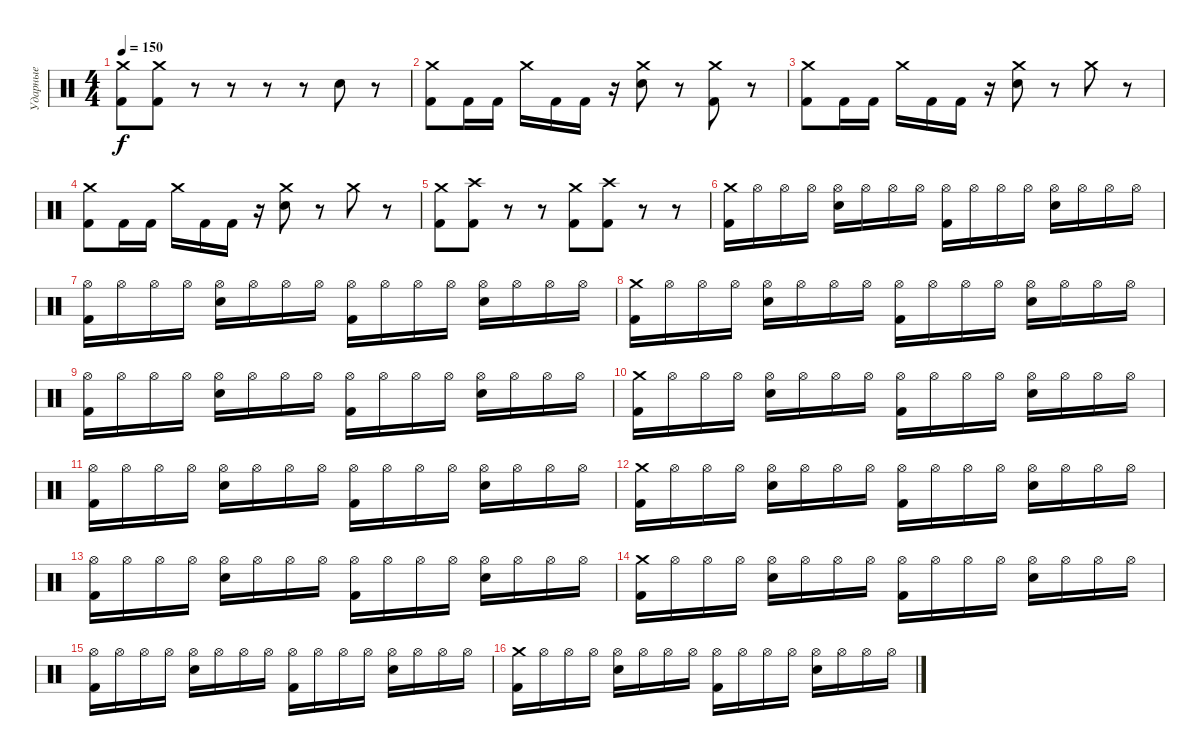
\track ("Ударные" "Ударные") {instrument percussion}
\staff {score}
\articulation defaults
\ts (4 4)
\tempo 150
\clef neutral
\ks c
("Crash medium (hit)" "Kick (hit) 2").8{dy f} ("Crash medium (hit)" "Kick (hit) 2").8 r.8 r.8 r.8 r.8 "Electric Snare (hit)".8 r.8 |
("Crash medium (hit)" "Kick (hit) 2").8 "Kick (hit) 2".16 "Kick (hit) 2".16 "Crash medium (hit)".16 "Kick (hit) 2".16 "Kick (hit) 2".16 r.16 ("Crash medium (hit)" "Electric Snare (hit)").8 r.8 ("Crash medium (hit)" "Kick (hit) 2").8 r.8 |
("Crash medium (hit)" "Kick (hit) 2").8 "Kick (hit) 2".16 "Kick (hit) 2".16 "Crash medium (hit)".16 "Kick (hit) 2".16 "Kick (hit) 2".16 r.16 ("Crash medium (hit)" "Electric Snare (hit)").8 r.8 "Crash medium (hit)".8 r.8 |
("Crash medium (hit)" "Kick (hit) 2").8 "Kick (hit) 2".16 "Kick (hit) 2".16 "Crash medium (hit)".16 "Kick (hit) 2".16 "Kick (hit) 2".16 r.16 ("Crash medium (hit)" "Electric Snare (hit)").8 r.8 "Crash medium (hit)".8 r.8 |
("Crash medium (hit)" "Kick (hit) 2").8 ("Crash high (hit)" "Kick (hit) 2").8 r.8 r.8 ("Crash medium (hit)" "Kick (hit) 2").8 ("Crash high (hit)" "Kick (hit) 2").8 r.8 r.8 |
("Crash medium (hit)" "Kick (hit) 2").16 "Hi-Hat (open)".16 "Hi-Hat (open)".16 "Hi-Hat (open)".16 ("Hi-Hat (open)" "Electric Snare (hit)").16 "Hi-Hat (open)".16 "Hi-Hat (open)".16 "Hi-Hat (open)".16 ("Hi-Hat (open)" "Kick (hit) 2").16 "Hi-Hat (open)".16 "Hi-Hat (open)".16 "Hi-Hat (open)".16 ("Hi-Hat (open)" "Electric Snare (hit)").16 "Hi-Hat (open)".16 "Hi-Hat (open)".16 "Hi-Hat (open)".16 |
("Hi-Hat (open)" "Kick (hit) 2").16 "Hi-Hat (open)".16 "Hi-Hat (open)".16 "Hi-Hat (open)".16 ("Hi-Hat (open)" "Electric Snare (hit)").16 "Hi-Hat (open)".16 "Hi-Hat (open)".16 "Hi-Hat (open)".16 ("Hi-Hat (open)" "Kick (hit) 2").16 "Hi-Hat (open)".16 "Hi-Hat (open)".16 "Hi-Hat (open)".16 ("Hi-Hat (open)" "Electric Snare (hit)").16 "Hi-Hat (open)".16 "Hi-Hat (open)".16 "Hi-Hat (open)".16 |
("Crash medium (hit)" "Kick (hit) 2").16 "Hi-Hat (open)".16 "Hi-Hat (open)".16 "Hi-Hat (open)".16 ("Hi-Hat (open)" "Electric Snare (hit)").16 "Hi-Hat (open)".16 "Hi-Hat (open)".16 "Hi-Hat (open)".16 ("Hi-Hat (open)" "Kick (hit) 2").16 "Hi-Hat (open)".16 "Hi-Hat (open)".16 "Hi-Hat (open)".16 ("Hi-Hat (open)" "Electric Snare (hit)").16 "Hi-Hat (open)".16 "Hi-Hat (open)".16 "Hi-Hat (open)".16 |
("Hi-Hat (open)" "Kick (hit) 2").16 "Hi-Hat (open)".16 "Hi-Hat (open)".16 "Hi-Hat (open)".16 ("Hi-Hat (open)" "Electric Snare (hit)").16 "Hi-Hat (open)".16 "Hi-Hat (open)".16 "Hi-Hat (open)".16 ("Hi-Hat (open)" "Kick (hit) 2").16 "Hi-Hat (open)".16 "Hi-Hat (open)".16 "Hi-Hat (open)".16 ("Hi-Hat (open)" "Electric Snare (hit)").16 "Hi-Hat (open)".16 "Hi-Hat (open)".16 "Hi-Hat (open)".16 |
("Crash medium (hit)" "Kick (hit) 2").16 "Hi-Hat (open)".16 "Hi-Hat (open)".16 "Hi-Hat (open)".16 ("Hi-Hat (open)" "Electric Snare (hit)").16 "Hi-Hat (open)".16 "Hi-Hat (open)".16 "Hi-Hat (open)".16 ("Hi-Hat (open)" "Kick (hit) 2").16 "Hi-Hat (open)".16 "Hi-Hat (open)".16 "Hi-Hat (open)".16 ("Hi-Hat (open)" "Electric Snare (hit)").16 "Hi-Hat (open)".16 "Hi-Hat (open)".16 "Hi-Hat (open)".16 |
("Hi-Hat (open)" "Kick (hit) 2").16 "Hi-Hat (open)".16 "Hi-Hat (open)".16 "Hi-Hat (open)".16 ("Hi-Hat (open)" "Electric Snare (hit)").16 "Hi-Hat (open)".16 "Hi-Hat (open)".16 "Hi-Hat (open)".16 ("Hi-Hat (open)" "Kick (hit) 2").16 "Hi-Hat (open)".16 "Hi-Hat (open)".16 "Hi-Hat (open)".16 ("Hi-Hat (open)" "Electric Snare (hit)").16 "Hi-Hat (open)".16 "Hi-Hat (open)".16 "Hi-Hat (open)".16 |
("Crash medium (hit)" "Kick (hit) 2").16 "Hi-Hat (open)".16 "Hi-Hat (open)".16 "Hi-Hat (open)".16 ("Hi-Hat (open)" "Electric Snare (hit)").16 "Hi-Hat (open)".16 "Hi-Hat (open)".16 "Hi-Hat (open)".16 ("Hi-Hat (open)" "Kick (hit) 2").16 "Hi-Hat (open)".16 "Hi-Hat (open)".16 "Hi-Hat (open)".16 ("Hi-Hat (open)" "Electric Snare (hit)").16 "Hi-Hat (open)".16 "Hi-Hat (open)".16 "Hi-Hat (open)".16 |
("Hi-Hat (open)" "Kick (hit) 2").16 "Hi-Hat (open)".16 "Hi-Hat (open)".16 "Hi-Hat (open)".16 ("Hi-Hat (open)" "Electric Snare (hit)").16 "Hi-Hat (open)".16 "Hi-Hat (open)".16 "Hi-Hat (open)".16 ("Hi-Hat (open)" "Kick (hit) 2").16 "Hi-Hat (open)".16 "Hi-Hat (open)".16 "Hi-Hat (open)".16 ("Hi-Hat (open)" "Electric Snare (hit)").16 "Hi-Hat (open)".16 "Hi-Hat (open)".16 "Hi-Hat (open)".16 |
("Crash medium (hit)" "Kick (hit) 2").16 "Hi-Hat (open)".16 "Hi-Hat (open)".16 "Hi-Hat (open)".16 ("Hi-Hat (open)" "Electric Snare (hit)").16 "Hi-Hat (open)".16 "Hi-Hat (open)".16 "Hi-Hat (open)".16 ("Hi-Hat (open)" "Kick (hit) 2").16 "Hi-Hat (open)".16 "Hi-Hat (open)".16 "Hi-Hat (open)".16 ("Hi-Hat (open)" "Electric Snare (hit)").16 "Hi-Hat (open)".16 "Hi-Hat (open)".16 "Hi-Hat (open)".16 |
("Hi-Hat (open)" "Kick (hit) 2").16 "Hi-Hat (open)".16 "Hi-Hat (open)".16 "Hi-Hat (open)".16 ("Hi-Hat (open)" "Electric Snare (hit)").16 "Hi-Hat (open)".16 "Hi-Hat (open)".16 "Hi-Hat (open)".16 ("Hi-Hat (open)" "Kick (hit) 2").16 "Hi-Hat (open)".16 "Hi-Hat (open)".16 "Hi-Hat (open)".16 ("Hi-Hat (open)" "Electric Snare (hit)").16 "Hi-Hat (open)".16 "Hi-Hat (open)".16 "Hi-Hat (open)".16 |
("Crash medium (hit)" "Kick (hit) 2").16 "Hi-Hat (open)".16 "Hi-Hat (open)".16 "Hi-Hat (open)".16 ("Hi-Hat (open)" "Electric Snare (hit)").16 "Hi-Hat (open)".16 "Hi-Hat (open)".16 "Hi-Hat (open)".16 ("Hi-Hat (open)" "Kick (hit) 2").16 "Hi-Hat (open)".16 "Hi-Hat (open)".16 "Hi-Hat (open)".16 ("Hi-Hat (open)" "Electric Snare (hit)").16 "Hi-Hat (open)".16 "Hi-Hat (open)".16 "Hi-Hat (open)".16
